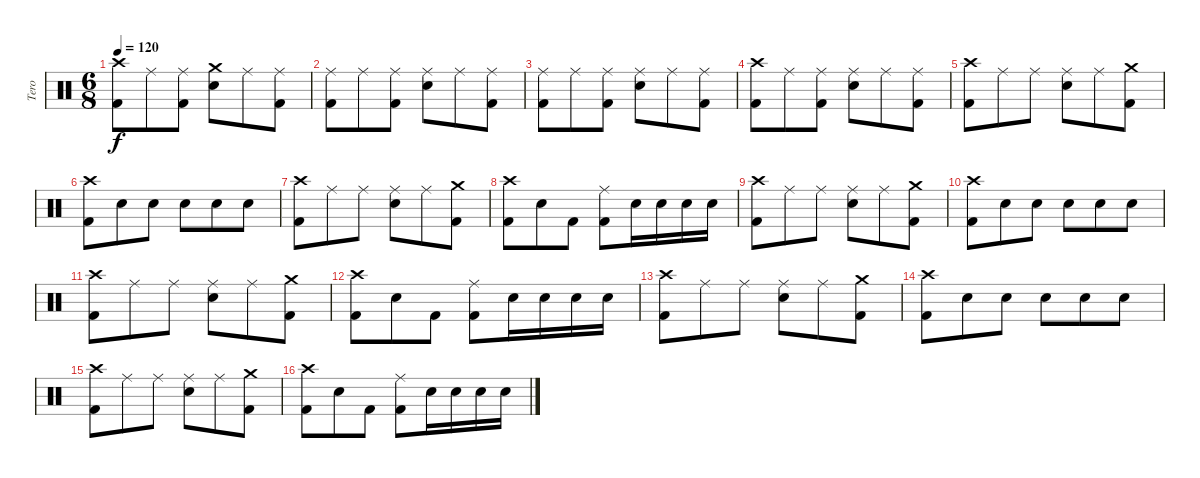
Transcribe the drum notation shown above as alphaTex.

\track ("Tero" "Tero") {instrument percussion}
\staff {score}
\articulation defaults
\ts (6 8)
\tempo 120
\clef neutral
\ks c
("Crash high (hit)" "Kick (hit) 2").8{dy f} "Ride (middle)".8 ("Kick (hit) 2" "Ride (middle)").8 ("Crash medium (hit)" "Snare (hit) 2").8 "Ride (middle)".8 ("Kick (hit) 2" "Ride (middle)").8 |
("Kick (hit) 2" "Ride (middle)").8 "Ride (middle)".8 ("Kick (hit) 2" "Ride (middle)").8 ("Snare (hit) 2" "Ride (middle)").8 "Ride (middle)".8 ("Kick (hit) 2" "Ride (middle)").8 |
("Kick (hit) 2" "Ride (middle)").8 "Ride (middle)".8 ("Kick (hit) 2" "Ride (middle)").8 ("Snare (hit) 2" "Ride (middle)").8 "Ride (middle)".8 ("Kick (hit) 2" "Ride (middle)").8 |
("Crash high (hit)" "Kick (hit) 2").8 "Ride (middle)".8 ("Kick (hit) 2" "Ride (middle)").8 ("Snare (hit) 2" "Ride (middle)").8 "Ride (middle)".8 ("Kick (hit) 2" "Ride (middle)").8 |
("Crash high (hit)" "Kick (hit) 2").8 "Ride (middle)".8 "Ride (middle)".8 ("Ride (middle)" "Snare (hit) 2").8 "Ride (middle)".8 ("Kick (hit) 2" "Crash medium (hit)").8 |
("Kick (hit) 2" "Crash high (hit)").8 "Snare (hit) 2".8 "Snare (hit) 2".8 "Snare (hit) 2".8 "Snare (hit) 2".8 "Snare (hit) 2".8 |
("Crash high (hit)" "Kick (hit) 2").8 "Ride (middle)".8 "Ride (middle)".8 ("Ride (middle)" "Snare (hit) 2").8 "Ride (middle)".8 ("Crash medium (hit)" "Kick (hit) 2").8 |
("Kick (hit) 2" "Crash high (hit)").8 "Snare (hit) 2".8 "Kick (hit) 2".8 ("Ride (middle)" "Kick (hit) 2").8 "Snare (hit) 2".16 "Snare (hit) 2".16 "Snare (hit) 2".16 "Snare (hit) 2".16 |
("Crash high (hit)" "Kick (hit) 2").8 "Ride (middle)".8 "Ride (middle)".8 ("Ride (middle)" "Snare (hit) 2").8 "Ride (middle)".8 ("Kick (hit) 2" "Crash medium (hit)").8 |
("Kick (hit) 2" "Crash high (hit)").8 "Snare (hit) 2".8 "Snare (hit) 2".8 "Snare (hit) 2".8 "Snare (hit) 2".8 "Snare (hit) 2".8 |
("Crash high (hit)" "Kick (hit) 2").8 "Ride (middle)".8 "Ride (middle)".8 ("Ride (middle)" "Snare (hit) 2").8 "Ride (middle)".8 ("Crash medium (hit)" "Kick (hit) 2").8 |
("Kick (hit) 2" "Crash high (hit)").8 "Snare (hit) 2".8 "Kick (hit) 2".8 ("Ride (middle)" "Kick (hit) 2").8 "Snare (hit) 2".16 "Snare (hit) 2".16 "Snare (hit) 2".16 "Snare (hit) 2".16 |
("Crash high (hit)" "Kick (hit) 2").8 "Ride (middle)".8 "Ride (middle)".8 ("Ride (middle)" "Snare (hit) 2").8 "Ride (middle)".8 ("Kick (hit) 2" "Crash medium (hit)").8 |
("Kick (hit) 2" "Crash high (hit)").8 "Snare (hit) 2".8 "Snare (hit) 2".8 "Snare (hit) 2".8 "Snare (hit) 2".8 "Snare (hit) 2".8 |
("Crash high (hit)" "Kick (hit) 2").8 "Ride (middle)".8 "Ride (middle)".8 ("Ride (middle)" "Snare (hit) 2").8 "Ride (middle)".8 ("Crash medium (hit)" "Kick (hit) 2").8 |
("Kick (hit) 2" "Crash high (hit)").8 "Snare (hit) 2".8 "Kick (hit) 2".8 ("Ride (middle)" "Kick (hit) 2").8 "Snare (hit) 2".16 "Snare (hit) 2".16 "Snare (hit) 2".16 "Snare (hit) 2".16
